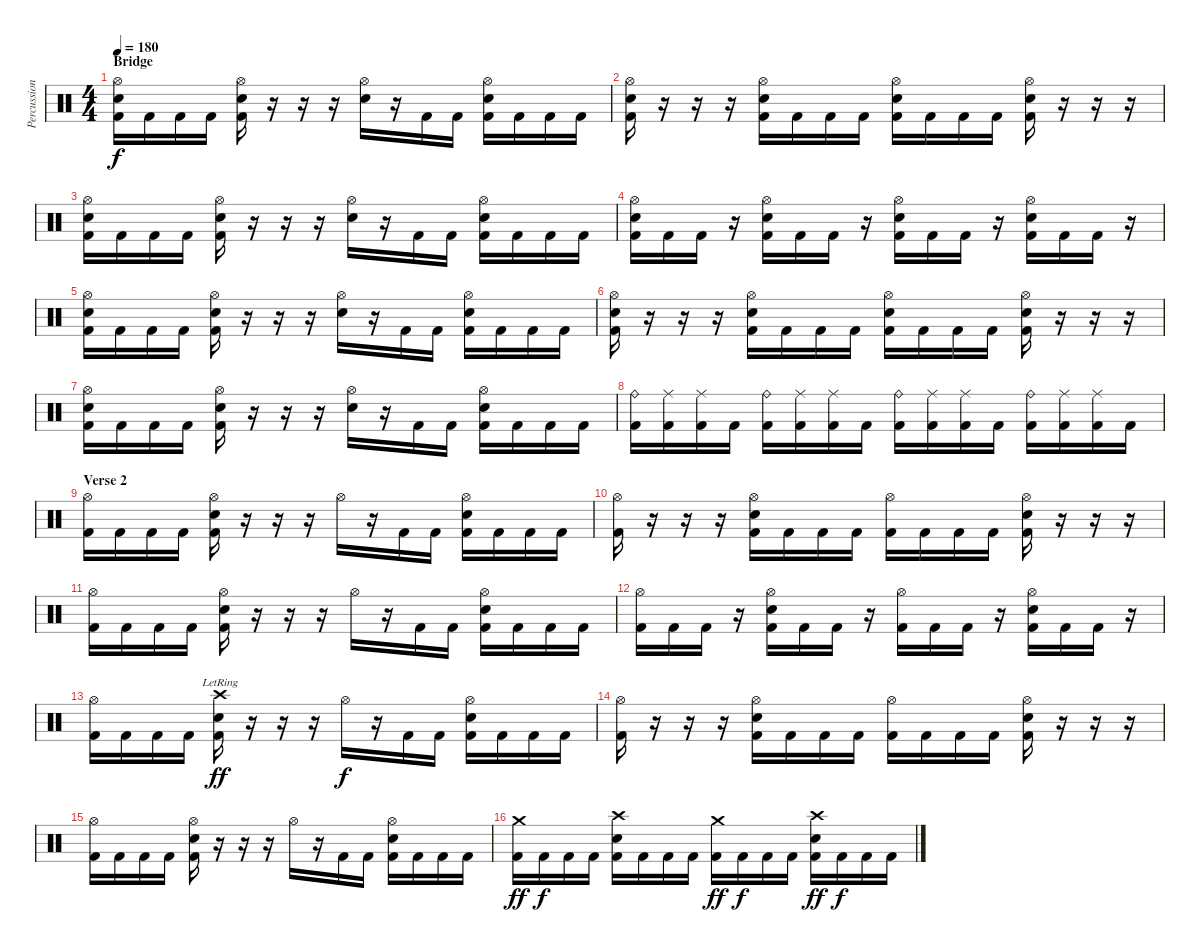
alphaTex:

\track ("Percussions" "Percussion") {instrument percussion}
\staff {score}
\articulation defaults
\ts (4 4)
\section ("" "Bridge")
\tempo 180
\clef neutral
\ks c
("Hi-Hat (open)" "Electric Snare (hit)" "Kick (hit) 2").16{dy f} "Kick (hit) 2".16 "Kick (hit) 2".16 "Kick (hit) 2".16 ("Hi-Hat (open)" "Electric Snare (hit)" "Kick (hit) 2").16 r.16 r.16 r.16 ("Hi-Hat (open)" "Electric Snare (hit)").16 r.16 "Kick (hit) 2".16 "Kick (hit) 2".16 ("Hi-Hat (open)" "Electric Snare (hit)" "Kick (hit) 2").16 "Kick (hit) 2".16 "Kick (hit) 2".16 "Kick (hit) 2".16 |
("Hi-Hat (open)" "Electric Snare (hit)" "Kick (hit) 2").16 r.16 r.16 r.16 ("Hi-Hat (open)" "Electric Snare (hit)" "Kick (hit) 2").16 "Kick (hit) 2".16 "Kick (hit) 2".16 "Kick (hit) 2".16 ("Hi-Hat (open)" "Electric Snare (hit)" "Kick (hit) 2").16 "Kick (hit) 2".16 "Kick (hit) 2".16 "Kick (hit) 2".16 ("Hi-Hat (open)" "Electric Snare (hit)" "Kick (hit) 2").16 r.16 r.16 r.16 |
("Hi-Hat (open)" "Electric Snare (hit)" "Kick (hit) 2").16 "Kick (hit) 2".16 "Kick (hit) 2".16 "Kick (hit) 2".16 ("Hi-Hat (open)" "Electric Snare (hit)" "Kick (hit) 2").16 r.16 r.16 r.16 ("Hi-Hat (open)" "Electric Snare (hit)").16 r.16 "Kick (hit) 2".16 "Kick (hit) 2".16 ("Hi-Hat (open)" "Electric Snare (hit)" "Kick (hit) 2").16 "Kick (hit) 2".16 "Kick (hit) 2".16 "Kick (hit) 2".16 |
("Hi-Hat (open)" "Electric Snare (hit)" "Kick (hit) 2").16 "Kick (hit) 2".16 "Kick (hit) 2".16 r.16 ("Hi-Hat (open)" "Electric Snare (hit)" "Kick (hit) 2").16 "Kick (hit) 2".16 "Kick (hit) 2".16 r.16 ("Hi-Hat (open)" "Electric Snare (hit)" "Kick (hit) 2").16 "Kick (hit) 2".16 "Kick (hit) 2".16 r.16 ("Hi-Hat (open)" "Electric Snare (hit)" "Kick (hit) 2").16 "Kick (hit) 2".16 "Kick (hit) 2".16 r.16 |
("Hi-Hat (open)" "Electric Snare (hit)" "Kick (hit) 2").16 "Kick (hit) 2".16 "Kick (hit) 2".16 "Kick (hit) 2".16 ("Hi-Hat (open)" "Electric Snare (hit)" "Kick (hit) 2").16 r.16 r.16 r.16 ("Hi-Hat (open)" "Electric Snare (hit)").16 r.16 "Kick (hit) 2".16 "Kick (hit) 2".16 ("Hi-Hat (open)" "Electric Snare (hit)" "Kick (hit) 2").16 "Kick (hit) 2".16 "Kick (hit) 2".16 "Kick (hit) 2".16 |
("Hi-Hat (open)" "Electric Snare (hit)" "Kick (hit) 2").16 r.16 r.16 r.16 ("Hi-Hat (open)" "Electric Snare (hit)" "Kick (hit) 2").16 "Kick (hit) 2".16 "Kick (hit) 2".16 "Kick (hit) 2".16 ("Hi-Hat (open)" "Electric Snare (hit)" "Kick (hit) 2").16 "Kick (hit) 2".16 "Kick (hit) 2".16 "Kick (hit) 2".16 ("Hi-Hat (open)" "Electric Snare (hit)" "Kick (hit) 2").16 r.16 r.16 r.16 |
("Hi-Hat (open)" "Electric Snare (hit)" "Kick (hit) 2").16 "Kick (hit) 2".16 "Kick (hit) 2".16 "Kick (hit) 2".16 ("Hi-Hat (open)" "Electric Snare (hit)" "Kick (hit) 2").16 r.16 r.16 r.16 ("Hi-Hat (open)" "Electric Snare (hit)").16 r.16 "Kick (hit) 2".16 "Kick (hit) 2".16 ("Hi-Hat (open)" "Electric Snare (hit)" "Kick (hit) 2").16 "Kick (hit) 2".16 "Kick (hit) 2".16 "Kick (hit) 2".16 |
("Ride (bell)" "Kick (hit) 2").16 ("Ride (middle)" "Kick (hit) 2").16 ("Ride (middle)" "Kick (hit) 2").16 "Kick (hit) 2".16 ("Ride (bell)" "Kick (hit) 2").16 ("Ride (middle)" "Kick (hit) 2").16 ("Ride (middle)" "Kick (hit) 2").16 "Kick (hit) 2".16 ("Ride (bell)" "Kick (hit) 2").16 ("Ride (middle)" "Kick (hit) 2").16 ("Ride (middle)" "Kick (hit) 2").16 "Kick (hit) 2".16 ("Ride (bell)" "Kick (hit) 2").16 ("Ride (middle)" "Kick (hit) 2").16 ("Ride (middle)" "Kick (hit) 2").16 "Kick (hit) 2".16 |
\section ("" "Verse 2")
("Hi-Hat (open)" "Kick (hit) 2").16 "Kick (hit) 2".16 "Kick (hit) 2".16 "Kick (hit) 2".16 ("Hi-Hat (open)" "Electric Snare (hit)" "Kick (hit) 2").16 r.16 r.16 r.16 "Hi-Hat (open)".16 r.16 "Kick (hit) 2".16 "Kick (hit) 2".16 ("Hi-Hat (open)" "Electric Snare (hit)" "Kick (hit) 2").16 "Kick (hit) 2".16 "Kick (hit) 2".16 "Kick (hit) 2".16 |
("Hi-Hat (open)" "Kick (hit) 2").16 r.16 r.16 r.16 ("Hi-Hat (open)" "Electric Snare (hit)" "Kick (hit) 2").16 "Kick (hit) 2".16 "Kick (hit) 2".16 "Kick (hit) 2".16 ("Hi-Hat (open)" "Kick (hit) 2").16 "Kick (hit) 2".16 "Kick (hit) 2".16 "Kick (hit) 2".16 ("Hi-Hat (open)" "Electric Snare (hit)" "Kick (hit) 2").16 r.16 r.16 r.16 |
("Hi-Hat (open)" "Kick (hit) 2").16 "Kick (hit) 2".16 "Kick (hit) 2".16 "Kick (hit) 2".16 ("Hi-Hat (open)" "Electric Snare (hit)" "Kick (hit) 2").16 r.16 r.16 r.16 "Hi-Hat (open)".16 r.16 "Kick (hit) 2".16 "Kick (hit) 2".16 ("Hi-Hat (open)" "Electric Snare (hit)" "Kick (hit) 2").16 "Kick (hit) 2".16 "Kick (hit) 2".16 "Kick (hit) 2".16 |
("Hi-Hat (open)" "Kick (hit) 2").16 "Kick (hit) 2".16 "Kick (hit) 2".16 r.16 ("Hi-Hat (open)" "Electric Snare (hit)" "Kick (hit) 2").16 "Kick (hit) 2".16 "Kick (hit) 2".16 r.16 ("Hi-Hat (open)" "Kick (hit) 2").16 "Kick (hit) 2".16 "Kick (hit) 2".16 r.16 ("Hi-Hat (open)" "Electric Snare (hit)" "Kick (hit) 2").16 "Kick (hit) 2".16 "Kick (hit) 2".16 r.16 |
("Hi-Hat (open)" "Kick (hit) 2").16 "Kick (hit) 2".16 "Kick (hit) 2".16 "Kick (hit) 2".16 ("Crash high (hit)"{lr} "Electric Snare (hit)" "Kick (hit) 2").16{dy ff} r.16 r.16 r.16 "Hi-Hat (open)".16{dy f} r.16 "Kick (hit) 2".16 "Kick (hit) 2".16 ("Hi-Hat (open)" "Electric Snare (hit)" "Kick (hit) 2").16 "Kick (hit) 2".16 "Kick (hit) 2".16 "Kick (hit) 2".16 |
("Hi-Hat (open)" "Kick (hit) 2").16 r.16 r.16 r.16 ("Hi-Hat (open)" "Electric Snare (hit)" "Kick (hit) 2").16 "Kick (hit) 2".16 "Kick (hit) 2".16 "Kick (hit) 2".16 ("Hi-Hat (open)" "Kick (hit) 2").16 "Kick (hit) 2".16 "Kick (hit) 2".16 "Kick (hit) 2".16 ("Hi-Hat (open)" "Electric Snare (hit)" "Kick (hit) 2").16 r.16 r.16 r.16 |
("Hi-Hat (open)" "Kick (hit) 2").16 "Kick (hit) 2".16 "Kick (hit) 2".16 "Kick (hit) 2".16 ("Hi-Hat (open)" "Electric Snare (hit)" "Kick (hit) 2").16 r.16 r.16 r.16 "Hi-Hat (open)".16 r.16 "Kick (hit) 2".16 "Kick (hit) 2".16 ("Hi-Hat (open)" "Electric Snare (hit)" "Kick (hit) 2").16 "Kick (hit) 2".16 "Kick (hit) 2".16 "Kick (hit) 2".16 |
("Crash medium (hit)" "Kick (hit) 2").16{dy ff} "Kick (hit) 2".16{dy f} "Kick (hit) 2".16 "Kick (hit) 2".16 ("Crash high (hit)" "Electric Snare (hit)" "Kick (hit) 2").16 "Kick (hit) 2".16 "Kick (hit) 2".16 "Kick (hit) 2".16 ("Crash medium (hit)" "Kick (hit) 2").16{dy ff} "Kick (hit) 2".16{dy f} "Kick (hit) 2".16 "Kick (hit) 2".16 ("Crash high (hit)" "Electric Snare (hit)" "Kick (hit) 2").16{dy ff} "Kick (hit) 2".16{dy f} "Kick (hit) 2".16 "Kick (hit) 2".16
